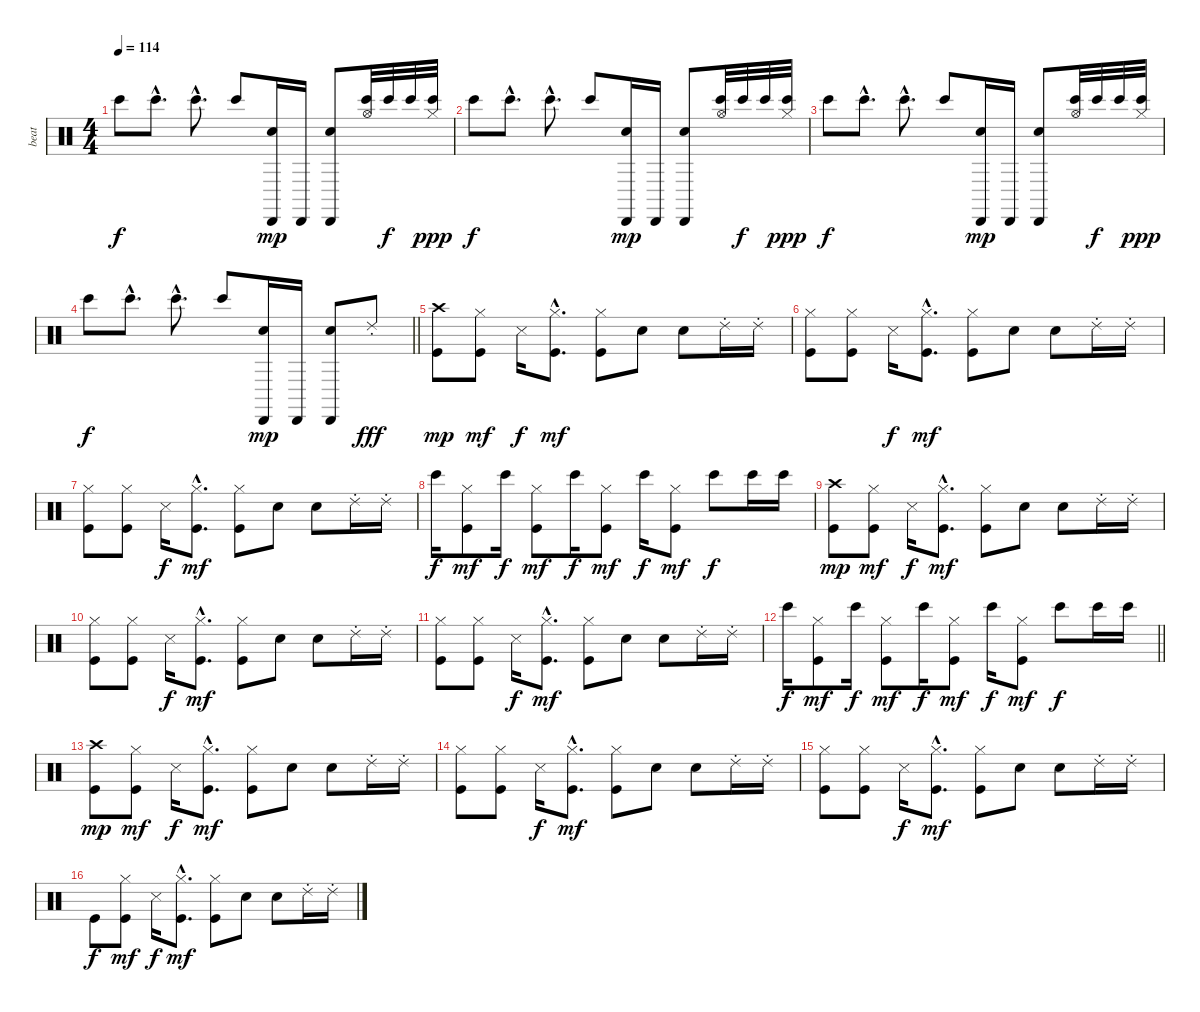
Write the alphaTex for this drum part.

\track ("beat" "beat") {instrument percussion}
\staff {score}
\articulation defaults
\ts (4 4)
\tempo 114
\clef neutral
\ks c "Bongo High (hit)".8{dy f} "Bongo High (hit)"{hac}.8{d} "Bongo High (hit)"{hac}.8{d} "Bongo High (hit)".8
("Cabasa (hit)" "Hand Clap (hit)").16{dy mp} "Cabasa (hit)".16 ("Cabasa (hit)" "Hand Clap (hit)").8 ("Hi-Hat (open)" "Bongo High (hit)").32 "Bongo High (hit)".32{dy f} "Bongo High (hit)".32 ("Hi-Hat (closed)" "Bongo High (hit)").32{dy ppp} |
"Bongo High (hit)".8{dy f} "Bongo High (hit)"{hac}.8{d} "Bongo High (hit)"{hac}.8{d} "Bongo High (hit)".8 ("Cabasa (hit)" "Hand Clap (hit)").16{dy mp} "Cabasa (hit)".16 ("Cabasa (hit)" "Hand Clap (hit)").8 ("Hi-Hat (open)" "Bongo High (hit)").32 "Bongo High (hit)".32{dy f} "Bongo High (hit)".32 ("Hi-Hat (closed)" "Bongo High (hit)").32{dy ppp} |
"Bongo High (hit)".8{dy f} "Bongo High (hit)"{hac}.8{d} "Bongo High (hit)"{hac}.8{d} "Bongo High (hit)".8 ("Cabasa (hit)" "Hand Clap (hit)").16{dy mp} "Cabasa (hit)".16 ("Cabasa (hit)" "Hand Clap (hit)").8 ("Hi-Hat (open)" "Bongo High (hit)").32 "Bongo High (hit)".32{dy f} "Bongo High (hit)".32 ("Hi-Hat (closed)" "Bongo High (hit)").32{dy ppp} |
\barLineRight lightlight "Bongo High (hit)".8{dy f} "Bongo High (hit)"{hac}.8{d} "Bongo High (hit)"{hac}.8{d} "Bongo High (hit)".8
("Cabasa (hit)" "Hand Clap (hit)").16{dy mp} "Cabasa (hit)".16 ("Cabasa (hit)" "Hand Clap (hit)").8 "Ride (choke) 2".8{dy fff} |
("Kick (hit)" "Crash high (hit)").8{dy mp} ("Kick (hit)" "Hi-Hat (closed)").8{dy mf} "Snare (side stick) 3".16{dy f} ("Kick (hit)"{hac} "Hi-Hat (closed)"{hac}).8{d dy mf} ("Kick (hit)" "Hi-Hat (closed)").8 "Hand Clap (hit)".8 "Hand Clap (hit)".8 "Ride (choke) 2".16 "Ride (choke) 2".16 |
("Kick (hit)" "Hi-Hat (closed)").8 ("Kick (hit)" "Hi-Hat (closed)").8 "Snare (side stick) 3".16{dy f} ("Kick (hit)"{hac} "Hi-Hat (closed)"{hac}).8{d dy mf} ("Kick (hit)" "Hi-Hat (closed)").8 "Hand Clap (hit)".8 "Hand Clap (hit)".8 "Ride (choke) 2".16 "Ride (choke) 2".16 |
("Kick (hit)" "Hi-Hat (closed)").8 ("Kick (hit)" "Hi-Hat (closed)").8 "Snare (side stick) 3".16{dy f} ("Kick (hit)"{hac} "Hi-Hat (closed)"{hac}).8{d dy mf} ("Kick (hit)" "Hi-Hat (closed)").8 "Hand Clap (hit)".8 "Hand Clap (hit)".8 "Ride (choke) 2".16 "Ride (choke) 2".16 |
"Bongo High (hit)".16{dy f} ("Kick (hit)" "Hi-Hat (closed)").8{dy mf} "Bongo High (hit)".16{dy f} ("Kick (hit)" "Hi-Hat (closed)").8{dy mf} "Bongo High (hit)".16{dy f} ("Kick (hit)" "Hi-Hat (closed)").8{dy mf} "Bongo High (hit)".16{dy f} ("Kick (hit)" "Hi-Hat (closed)").8{dy mf} "Bongo High (hit)".8{dy f} "Bongo High (hit)".16 "Bongo High (hit)".16 |
("Kick (hit)" "Crash high (hit)").8{dy mp} ("Kick (hit)" "Hi-Hat (closed)").8{dy mf} "Snare (side stick) 3".16{dy f} ("Kick (hit)"{hac} "Hi-Hat (closed)"{hac}).8{d dy mf} ("Kick (hit)" "Hi-Hat (closed)").8 "Hand Clap (hit)".8 "Hand Clap (hit)".8 "Ride (choke) 2".16 "Ride (choke) 2".16 |
("Kick (hit)" "Hi-Hat (closed)").8 ("Kick (hit)" "Hi-Hat (closed)").8 "Snare (side stick) 3".16{dy f} ("Kick (hit)"{hac} "Hi-Hat (closed)"{hac}).8{d dy mf} ("Kick (hit)" "Hi-Hat (closed)").8 "Hand Clap (hit)".8 "Hand Clap (hit)".8 "Ride (choke) 2".16 "Ride (choke) 2".16 |
("Kick (hit)" "Hi-Hat (closed)").8 ("Kick (hit)" "Hi-Hat (closed)").8 "Snare (side stick) 3".16{dy f} ("Kick (hit)"{hac} "Hi-Hat (closed)"{hac}).8{d dy mf} ("Kick (hit)" "Hi-Hat (closed)").8 "Hand Clap (hit)".8 "Hand Clap (hit)".8 "Ride (choke) 2".16 "Ride (choke) 2".16 |
\barLineRight lightlight "Bongo High (hit)".16{dy f}
("Kick (hit)" "Hi-Hat (closed)").8{dy mf} "Bongo High (hit)".16{dy f} ("Kick (hit)" "Hi-Hat (closed)").8{dy mf} "Bongo High (hit)".16{dy f} ("Kick (hit)" "Hi-Hat (closed)").8{dy mf} "Bongo High (hit)".16{dy f} ("Kick (hit)" "Hi-Hat (closed)").8{dy mf} "Bongo High (hit)".8{dy f} "Bongo High (hit)".16 "Bongo High (hit)".16 |
("Kick (hit)" "Crash high (hit)").8{dy mp} ("Kick (hit)" "Hi-Hat (closed)").8{dy mf} "Snare (side stick) 3".16{dy f} ("Kick (hit)"{hac} "Hi-Hat (closed)"{hac}).8{d dy mf} ("Kick (hit)" "Hi-Hat (closed)").8 "Hand Clap (hit)".8 "Hand Clap (hit)".8 "Ride (choke) 2".16 "Ride (choke) 2".16 |
("Kick (hit)" "Hi-Hat (closed)").8 ("Kick (hit)" "Hi-Hat (closed)").8 "Snare (side stick) 3".16{dy f} ("Kick (hit)"{hac} "Hi-Hat (closed)"{hac}).8{d dy mf} ("Kick (hit)" "Hi-Hat (closed)").8 "Hand Clap (hit)".8 "Hand Clap (hit)".8 "Ride (choke) 2".16 "Ride (choke) 2".16 |
("Kick (hit)" "Hi-Hat (closed)").8 ("Kick (hit)" "Hi-Hat (closed)").8 "Snare (side stick) 3".16{dy f} ("Kick (hit)"{hac} "Hi-Hat (closed)"{hac}).8{d dy mf} ("Kick (hit)" "Hi-Hat (closed)").8 "Hand Clap (hit)".8 "Hand Clap (hit)".8 "Ride (choke) 2".16 "Ride (choke) 2".16 |
"Kick (hit)".8{dy f} ("Kick (hit)" "Hi-Hat (closed)").8{dy mf} "Snare (side stick) 3".16{dy f} ("Kick (hit)"{hac} "Hi-Hat (closed)"{hac}).8{d dy mf} ("Kick (hit)" "Hi-Hat (closed)").8 "Hand Clap (hit)".8 "Hand Clap (hit)".8 "Ride (choke) 2".16 "Ride (choke) 2".16
